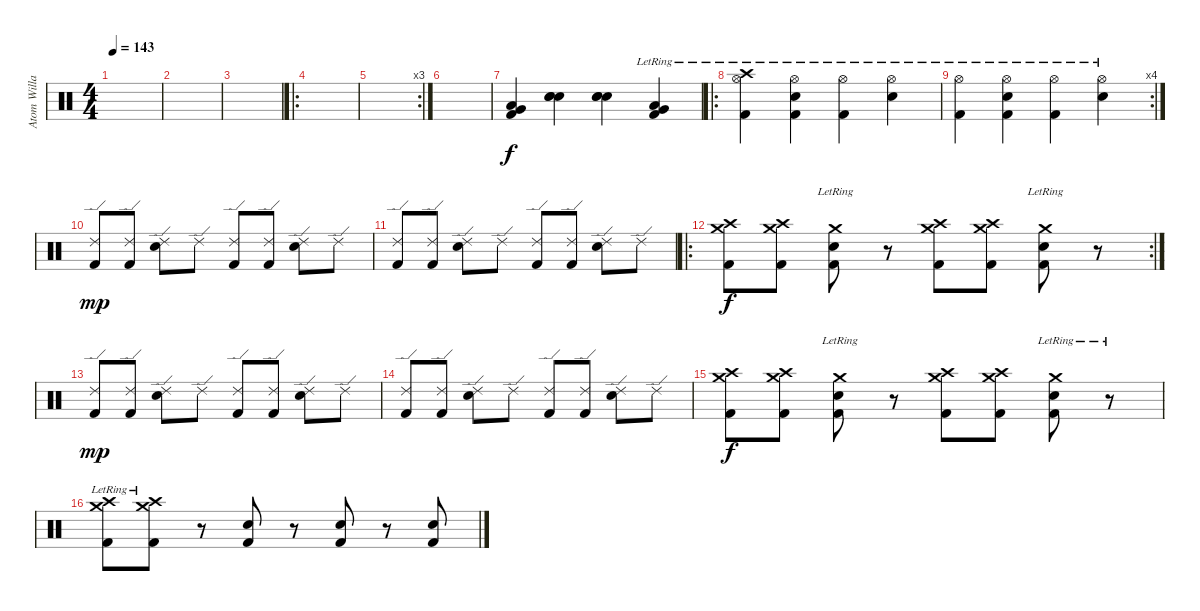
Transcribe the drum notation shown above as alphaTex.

\track ("Atom Willard (drums)" "Atom Willa") {instrument percussion}
\staff {score}
\articulation defaults
\ts (4 4)
\tempo 143
\clef neutral
\ks c
|
|
|
\ro
|
\rc 3
|
|
("Very Low Tom (hit)"{x} "Low Tom (hit)"{x} "Kick (hit) 2"{x}).4 ("Snare (hit)"{x} "Snare (hit)"{x} "Snare (hit)"{x}).4 ("Snare (hit)"{x} "Snare (hit)"{x} "Snare (hit)"{x}).4 ("Very Low Tom (hit)"{lr} "Low Tom (hit)"{lr} "Kick (hit) 2"{lr}).4 |
\ro
("Kick (hit) 2" "Hi-Hat (open)"{lr} "Crash high (hit)"{lr}).4 ("Kick (hit) 2" "Hi-Hat (open)"{lr} "Snare (hit) 2").4 ("Kick (hit) 2" "Hi-Hat (open)"{lr}).4 ("Hi-Hat (open)"{lr} "Snare (hit) 2").4 |
\rc 4
("Kick (hit) 2" "Hi-Hat (open)"{lr}).4 ("Kick (hit) 2" "Hi-Hat (open)"{lr} "Snare (hit) 2").4 ("Kick (hit) 2" "Hi-Hat (open)"{lr}).4 ("Hi-Hat (open)"{lr} "Snare (hit) 2").4 |
("Kick (hit) 2" "Ride (edge) 2").8{dy mp} ("Kick (hit) 2" "Ride (edge) 2").8 ("Ride (edge) 2" "Snare (hit) 2").8 "Ride (edge) 2".8 ("Kick (hit) 2" "Ride (edge) 2").8 ("Kick (hit) 2" "Ride (edge) 2").8 ("Ride (edge) 2" "Snare (hit) 2").8 "Ride (edge) 2".8 |
("Kick (hit) 2" "Ride (edge) 2").8 ("Kick (hit) 2" "Ride (edge) 2").8 ("Ride (edge) 2" "Snare (hit) 2").8 "Ride (edge) 2".8 ("Kick (hit) 2" "Ride (edge) 2").8 ("Kick (hit) 2" "Ride (edge) 2").8 ("Ride (edge) 2" "Snare (hit) 2").8 "Ride (edge) 2".8 |
\ro
\rc 2
("Kick (hit) 2" "Crash medium (hit)" "Crash high (hit)").8{dy f} ("Kick (hit) 2" "Crash medium (hit)" "Crash high (hit)").8 ("Kick (hit) 2" "Crash medium (hit)"{lr} "Snare (hit) 2").8 r.8 ("Kick (hit) 2" "Crash medium (hit)" "Crash high (hit)").8 ("Kick (hit) 2" "Crash medium (hit)" "Crash high (hit)").8 ("Kick (hit) 2" "Crash medium (hit)"{lr} "Snare (hit) 2").8 r.8 |
("Kick (hit) 2" "Ride (edge) 2").8{dy mp} ("Kick (hit) 2" "Ride (edge) 2").8 ("Ride (edge) 2" "Snare (hit) 2").8 "Ride (edge) 2".8 ("Kick (hit) 2" "Ride (edge) 2").8 ("Kick (hit) 2" "Ride (edge) 2").8 ("Ride (edge) 2" "Snare (hit) 2").8 "Ride (edge) 2".8 |
("Kick (hit) 2" "Ride (edge) 2").8 ("Kick (hit) 2" "Ride (edge) 2").8 ("Ride (edge) 2" "Snare (hit) 2").8 "Ride (edge) 2".8 ("Kick (hit) 2" "Ride (edge) 2").8 ("Kick (hit) 2" "Ride (edge) 2").8 ("Ride (edge) 2" "Snare (hit) 2").8 "Ride (edge) 2".8 |
("Kick (hit) 2" "Crash medium (hit)" "Crash high (hit)").8{dy f} ("Kick (hit) 2" "Crash medium (hit)" "Crash high (hit)").8 ("Kick (hit) 2" "Crash medium (hit)"{lr} "Snare (hit) 2").8 r.8 ("Kick (hit) 2" "Crash medium (hit)" "Crash high (hit)").8 ("Kick (hit) 2" "Crash medium (hit)" "Crash high (hit)").8 ("Kick (hit) 2" "Crash medium (hit)"{lr} "Snare (hit) 2").8 r.8 |
("Kick (hit) 2" "Crash medium (hit)"{lr} "Crash high (hit)"{lr}).8 ("Kick (hit) 2" "Crash medium (hit)"{lr} "Crash high (hit)"{lr}).8 r.8 ("Kick (hit) 2" "Snare (hit) 2").8 r.8 ("Kick (hit) 2" "Snare (hit) 2").8 r.8 ("Kick (hit) 2" "Snare (hit) 2").8
